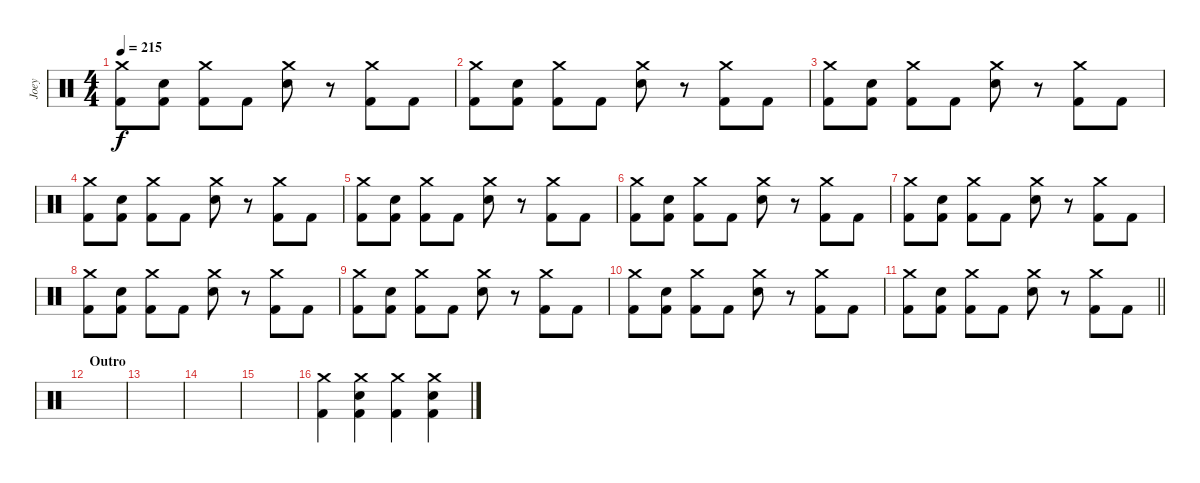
\track ("Joey" "Joey") {instrument percussion}
\staff {score}
\articulation defaults
\ts (4 4)
\tempo 215
\clef neutral
\ks c
("Crash medium (hit)" "Kick (hit) 2").8{dy f} ("Electric Snare (hit)" "Kick (hit) 2").8 ("Crash medium (hit)" "Kick (hit) 2").8 "Kick (hit) 2".8 ("Crash medium (hit)" "Electric Snare (hit)").8 r.8 ("Crash medium (hit)" "Kick (hit) 2").8 "Kick (hit) 2".8 |
("Crash medium (hit)" "Kick (hit) 2").8 ("Electric Snare (hit)" "Kick (hit) 2").8 ("Crash medium (hit)" "Kick (hit) 2").8 "Kick (hit) 2".8 ("Crash medium (hit)" "Electric Snare (hit)").8 r.8 ("Crash medium (hit)" "Kick (hit) 2").8 "Kick (hit) 2".8 |
("Crash medium (hit)" "Kick (hit) 2").8 ("Electric Snare (hit)" "Kick (hit) 2").8 ("Crash medium (hit)" "Kick (hit) 2").8 "Kick (hit) 2".8 ("Crash medium (hit)" "Electric Snare (hit)").8 r.8 ("Crash medium (hit)" "Kick (hit) 2").8 "Kick (hit) 2".8 |
("Crash medium (hit)" "Kick (hit) 2").8 ("Electric Snare (hit)" "Kick (hit) 2").8 ("Crash medium (hit)" "Kick (hit) 2").8 "Kick (hit) 2".8 ("Crash medium (hit)" "Electric Snare (hit)").8 r.8 ("Crash medium (hit)" "Kick (hit) 2").8 "Kick (hit) 2".8 |
("Crash medium (hit)" "Kick (hit) 2").8 ("Electric Snare (hit)" "Kick (hit) 2").8 ("Crash medium (hit)" "Kick (hit) 2").8 "Kick (hit) 2".8 ("Crash medium (hit)" "Electric Snare (hit)").8 r.8 ("Crash medium (hit)" "Kick (hit) 2").8 "Kick (hit) 2".8 |
("Crash medium (hit)" "Kick (hit) 2").8 ("Electric Snare (hit)" "Kick (hit) 2").8 ("Crash medium (hit)" "Kick (hit) 2").8 "Kick (hit) 2".8 ("Crash medium (hit)" "Electric Snare (hit)").8 r.8 ("Crash medium (hit)" "Kick (hit) 2").8 "Kick (hit) 2".8 |
("Crash medium (hit)" "Kick (hit) 2").8 ("Electric Snare (hit)" "Kick (hit) 2").8 ("Crash medium (hit)" "Kick (hit) 2").8 "Kick (hit) 2".8 ("Crash medium (hit)" "Electric Snare (hit)").8 r.8 ("Crash medium (hit)" "Kick (hit) 2").8 "Kick (hit) 2".8 |
("Crash medium (hit)" "Kick (hit) 2").8 ("Electric Snare (hit)" "Kick (hit) 2").8 ("Crash medium (hit)" "Kick (hit) 2").8 "Kick (hit) 2".8 ("Crash medium (hit)" "Electric Snare (hit)").8 r.8 ("Crash medium (hit)" "Kick (hit) 2").8 "Kick (hit) 2".8 |
("Crash medium (hit)" "Kick (hit) 2").8 ("Electric Snare (hit)" "Kick (hit) 2").8 ("Crash medium (hit)" "Kick (hit) 2").8 "Kick (hit) 2".8 ("Crash medium (hit)" "Electric Snare (hit)").8 r.8 ("Crash medium (hit)" "Kick (hit) 2").8 "Kick (hit) 2".8 |
("Crash medium (hit)" "Kick (hit) 2").8 ("Electric Snare (hit)" "Kick (hit) 2").8 ("Crash medium (hit)" "Kick (hit) 2").8 "Kick (hit) 2".8 ("Crash medium (hit)" "Electric Snare (hit)").8 r.8 ("Crash medium (hit)" "Kick (hit) 2").8 "Kick (hit) 2".8 |
\barLineRight lightlight
("Crash medium (hit)" "Kick (hit) 2").8 ("Electric Snare (hit)" "Kick (hit) 2").8 ("Crash medium (hit)" "Kick (hit) 2").8 "Kick (hit) 2".8 ("Crash medium (hit)" "Electric Snare (hit)").8 r.8 ("Crash medium (hit)" "Kick (hit) 2").8 "Kick (hit) 2".8 |
\section ("" "Outro")
|
|
|
|
("Crash medium (hit)" "Kick (hit) 2").4 ("Crash medium (hit)" "Electric Snare (hit)" "Kick (hit) 2").4 ("Crash medium (hit)" "Kick (hit) 2").4 ("Crash medium (hit)" "Electric Snare (hit)" "Kick (hit) 2").4
